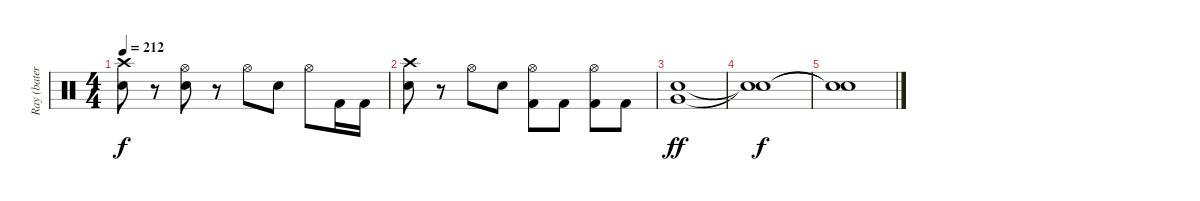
\track ("Ray (batería)" "Ray (bater") {instrument percussion}
\staff {score}
\articulation defaults
\ts (4 4)
\tempo 212
\clef neutral
\ks c
("Crash high (hit)" "Snare (hit) 2").8{dy f} r.8 ("Hi-Hat (open)" "Snare (hit) 2").8 r.8 "Hi-Hat (open)".8 "Snare (hit) 2".8 "Hi-Hat (open)".8 "Kick (hit) 2".16 "Kick (hit) 2".16 |
("Crash high (hit)" "Snare (hit) 2").8 r.8 "Hi-Hat (open)".8 "Snare (hit) 2".8 ("Hi-Hat (open)" "Kick (hit) 2").8 "Kick (hit) 2".8 ("Hi-Hat (open)" "Kick (hit) 2").8 "Kick (hit) 2".8 |
("Snare (hit) 2" "Very Low Tom (hit)").1{dy ff} |
("Snare (hit)"{t} "Snare (hit)"{t}).1{dy f} |
("Snare (hit)"{t} "Snare (hit)"{t}).1
